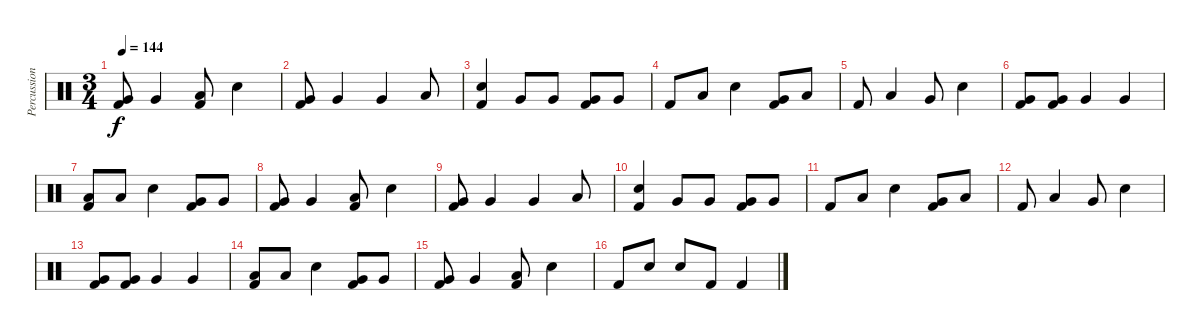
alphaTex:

\track ("Percussion" "Percussion") {instrument percussion}
\staff {score}
\articulation defaults
\ts (3 4)
\tempo 144
\clef neutral
\ks c
("Very Low Tom (hit)" "Kick (hit) 2").8{dy f} "Very Low Tom (hit)".4 ("Low Tom (hit)" "Kick (hit) 2").8 "Electric Snare (hit)".4 |
("Very Low Tom (hit)" "Kick (hit) 2").8 "Very Low Tom (hit)".4 "Very Low Tom (hit)".4 "Low Tom (hit)".8 |
("Electric Snare (hit)" "Kick (hit) 2").4 "Very Low Tom (hit)".8 "Very Low Tom (hit)".8 ("Very Low Tom (hit)" "Kick (hit) 2").8 "Very Low Tom (hit)".8 |
"Kick (hit) 2".8 "Low Tom (hit)".8 "Electric Snare (hit)".4 ("Very Low Tom (hit)" "Kick (hit) 2").8 "Low Tom (hit)".8 |
"Kick (hit) 2".8 "Low Tom (hit)".4 "Very Low Tom (hit)".8 "Electric Snare (hit)".4 |
("Very Low Tom (hit)" "Kick (hit) 2").8 ("Very Low Tom (hit)" "Kick (hit) 2").8 "Very Low Tom (hit)".4 "Very Low Tom (hit)".4 |
("Low Tom (hit)" "Kick (hit) 2").8 "Low Tom (hit)".8 "Electric Snare (hit)".4 ("Very Low Tom (hit)" "Kick (hit) 2").8 "Very Low Tom (hit)".8 |
("Very Low Tom (hit)" "Kick (hit) 2").8 "Very Low Tom (hit)".4 ("Low Tom (hit)" "Kick (hit) 2").8 "Electric Snare (hit)".4 |
("Very Low Tom (hit)" "Kick (hit) 2").8 "Very Low Tom (hit)".4 "Very Low Tom (hit)".4 "Low Tom (hit)".8 |
("Electric Snare (hit)" "Kick (hit) 2").4 "Very Low Tom (hit)".8 "Very Low Tom (hit)".8 ("Very Low Tom (hit)" "Kick (hit) 2").8 "Very Low Tom (hit)".8 |
"Kick (hit) 2".8 "Low Tom (hit)".8 "Electric Snare (hit)".4 ("Very Low Tom (hit)" "Kick (hit) 2").8 "Low Tom (hit)".8 |
"Kick (hit) 2".8 "Low Tom (hit)".4 "Very Low Tom (hit)".8 "Electric Snare (hit)".4 |
("Very Low Tom (hit)" "Kick (hit) 2").8 ("Very Low Tom (hit)" "Kick (hit) 2").8 "Very Low Tom (hit)".4 "Very Low Tom (hit)".4 |
("Low Tom (hit)" "Kick (hit) 2").8 "Low Tom (hit)".8 "Electric Snare (hit)".4 ("Very Low Tom (hit)" "Kick (hit) 2").8 "Very Low Tom (hit)".8 |
("Very Low Tom (hit)" "Kick (hit) 2").8 "Very Low Tom (hit)".4 ("Low Tom (hit)" "Kick (hit) 2").8 "Electric Snare (hit)".4 |
"Kick (hit) 2".8 "Electric Snare (hit)".8 "Electric Snare (hit)".8 "Kick (hit) 2".8 "Kick (hit) 2".4
